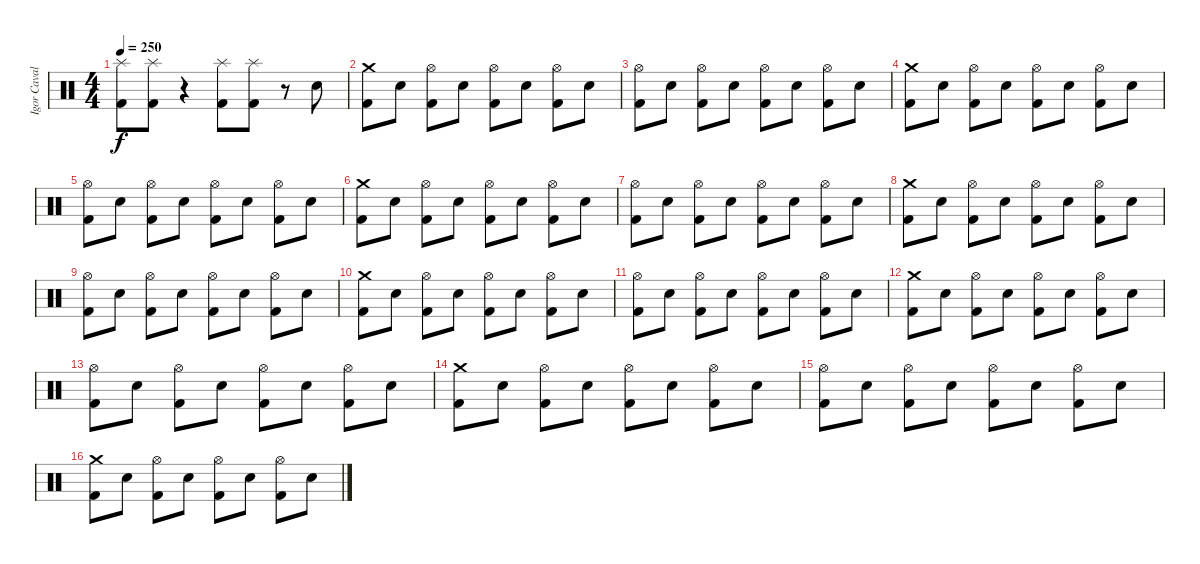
\track ("Igor Cavalera" "Igor Caval") {instrument percussion}
\staff {score}
\articulation defaults
\ts (4 4)
\tempo 250
\clef neutral
\ks c
("Kick (hit) 2" "Splash (hit)").8{dy f} ("Kick (hit) 2" "Splash (hit)").8 r.4 ("Kick (hit) 2" "Splash (hit)").8 ("Kick (hit) 2" "Splash (hit)").8 r.8 "Electric Snare (hit)".8 |
("Crash medium (hit)" "Kick (hit) 2").8 "Electric Snare (hit)".8 ("Hi-Hat (open)" "Kick (hit) 2").8 "Electric Snare (hit)".8 ("Hi-Hat (open)" "Kick (hit) 2").8 "Electric Snare (hit)".8 ("Hi-Hat (open)" "Kick (hit) 2").8 "Electric Snare (hit)".8 |
("Hi-Hat (open)" "Kick (hit) 2").8 "Electric Snare (hit)".8 ("Hi-Hat (open)" "Kick (hit) 2").8 "Electric Snare (hit)".8 ("Hi-Hat (open)" "Kick (hit) 2").8 "Electric Snare (hit)".8 ("Hi-Hat (open)" "Kick (hit) 2").8 "Electric Snare (hit)".8 |
("Crash medium (hit)" "Kick (hit) 2").8 "Electric Snare (hit)".8 ("Hi-Hat (open)" "Kick (hit) 2").8 "Electric Snare (hit)".8 ("Hi-Hat (open)" "Kick (hit) 2").8 "Electric Snare (hit)".8 ("Hi-Hat (open)" "Kick (hit) 2").8 "Electric Snare (hit)".8 |
("Hi-Hat (open)" "Kick (hit) 2").8 "Electric Snare (hit)".8 ("Hi-Hat (open)" "Kick (hit) 2").8 "Electric Snare (hit)".8 ("Hi-Hat (open)" "Kick (hit) 2").8 "Electric Snare (hit)".8 ("Hi-Hat (open)" "Kick (hit) 2").8 "Electric Snare (hit)".8 |
("Crash medium (hit)" "Kick (hit) 2").8 "Electric Snare (hit)".8 ("Hi-Hat (open)" "Kick (hit) 2").8 "Electric Snare (hit)".8 ("Hi-Hat (open)" "Kick (hit) 2").8 "Electric Snare (hit)".8 ("Hi-Hat (open)" "Kick (hit) 2").8 "Electric Snare (hit)".8 |
("Hi-Hat (open)" "Kick (hit) 2").8 "Electric Snare (hit)".8 ("Hi-Hat (open)" "Kick (hit) 2").8 "Electric Snare (hit)".8 ("Hi-Hat (open)" "Kick (hit) 2").8 "Electric Snare (hit)".8 ("Hi-Hat (open)" "Kick (hit) 2").8 "Electric Snare (hit)".8 |
("Crash medium (hit)" "Kick (hit) 2").8 "Electric Snare (hit)".8 ("Hi-Hat (open)" "Kick (hit) 2").8 "Electric Snare (hit)".8 ("Hi-Hat (open)" "Kick (hit) 2").8 "Electric Snare (hit)".8 ("Hi-Hat (open)" "Kick (hit) 2").8 "Electric Snare (hit)".8 |
("Hi-Hat (open)" "Kick (hit) 2").8 "Electric Snare (hit)".8 ("Hi-Hat (open)" "Kick (hit) 2").8 "Electric Snare (hit)".8 ("Hi-Hat (open)" "Kick (hit) 2").8 "Electric Snare (hit)".8 ("Hi-Hat (open)" "Kick (hit) 2").8 "Electric Snare (hit)".8 |
("Crash medium (hit)" "Kick (hit) 2").8 "Electric Snare (hit)".8 ("Hi-Hat (open)" "Kick (hit) 2").8 "Electric Snare (hit)".8 ("Hi-Hat (open)" "Kick (hit) 2").8 "Electric Snare (hit)".8 ("Hi-Hat (open)" "Kick (hit) 2").8 "Electric Snare (hit)".8 |
("Hi-Hat (open)" "Kick (hit) 2").8 "Electric Snare (hit)".8 ("Hi-Hat (open)" "Kick (hit) 2").8 "Electric Snare (hit)".8 ("Hi-Hat (open)" "Kick (hit) 2").8 "Electric Snare (hit)".8 ("Hi-Hat (open)" "Kick (hit) 2").8 "Electric Snare (hit)".8 |
("Crash medium (hit)" "Kick (hit) 2").8 "Electric Snare (hit)".8 ("Hi-Hat (open)" "Kick (hit) 2").8 "Electric Snare (hit)".8 ("Hi-Hat (open)" "Kick (hit) 2").8 "Electric Snare (hit)".8 ("Hi-Hat (open)" "Kick (hit) 2").8 "Electric Snare (hit)".8 |
("Hi-Hat (open)" "Kick (hit) 2").8 "Electric Snare (hit)".8 ("Hi-Hat (open)" "Kick (hit) 2").8 "Electric Snare (hit)".8 ("Hi-Hat (open)" "Kick (hit) 2").8 "Electric Snare (hit)".8 ("Hi-Hat (open)" "Kick (hit) 2").8 "Electric Snare (hit)".8 |
("Crash medium (hit)" "Kick (hit) 2").8 "Electric Snare (hit)".8 ("Hi-Hat (open)" "Kick (hit) 2").8 "Electric Snare (hit)".8 ("Hi-Hat (open)" "Kick (hit) 2").8 "Electric Snare (hit)".8 ("Hi-Hat (open)" "Kick (hit) 2").8 "Electric Snare (hit)".8 |
("Hi-Hat (open)" "Kick (hit) 2").8 "Electric Snare (hit)".8 ("Hi-Hat (open)" "Kick (hit) 2").8 "Electric Snare (hit)".8 ("Hi-Hat (open)" "Kick (hit) 2").8 "Electric Snare (hit)".8 ("Hi-Hat (open)" "Kick (hit) 2").8 "Electric Snare (hit)".8 |
("Crash medium (hit)" "Kick (hit) 2").8 "Electric Snare (hit)".8 ("Hi-Hat (open)" "Kick (hit) 2").8 "Electric Snare (hit)".8 ("Hi-Hat (open)" "Kick (hit) 2").8 "Electric Snare (hit)".8 ("Hi-Hat (open)" "Kick (hit) 2").8 "Electric Snare (hit)".8
